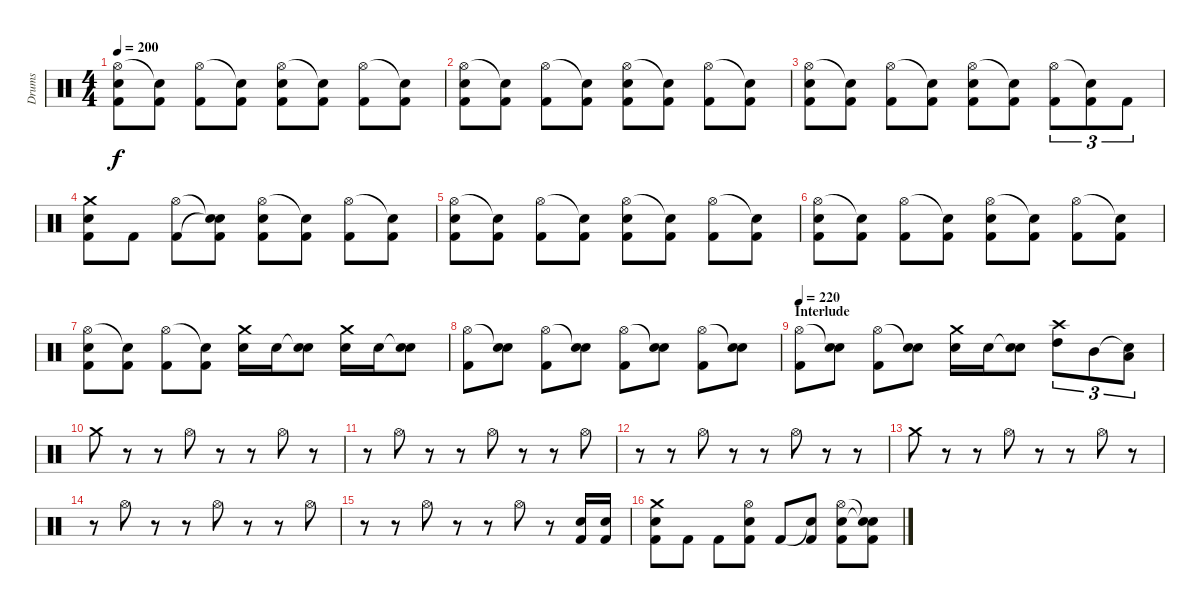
\track ("Drums" "Drums") {instrument percussion}
\staff {score}
\articulation defaults
\ts (4 4)
\tempo 200
\clef neutral
\ks c
("Hi-Hat (open)" "Electric Snare (hit)" "Kick (hit) 2").8{dy f} ("Snare (hit)"{t} "Kick (hit) 2").8 ("Hi-Hat (open)" "Kick (hit) 2").8 ("Snare (hit)"{t} "Kick (hit) 2").8 ("Hi-Hat (open)" "Electric Snare (hit)" "Kick (hit) 2").8 ("Snare (hit)"{t} "Kick (hit) 2").8 ("Hi-Hat (open)" "Kick (hit) 2").8 ("Snare (hit)"{t} "Kick (hit) 2").8 |
("Hi-Hat (open)" "Electric Snare (hit)" "Kick (hit) 2").8 ("Snare (hit)"{t} "Kick (hit) 2").8 ("Hi-Hat (open)" "Kick (hit) 2").8 ("Snare (hit)"{t} "Kick (hit) 2").8 ("Hi-Hat (open)" "Electric Snare (hit)" "Kick (hit) 2").8 ("Snare (hit)"{t} "Kick (hit) 2").8 ("Hi-Hat (open)" "Kick (hit) 2").8 ("Snare (hit)"{t} "Kick (hit) 2").8 |
("Hi-Hat (open)" "Electric Snare (hit)" "Kick (hit) 2").8 ("Snare (hit)"{t} "Kick (hit) 2").8 ("Hi-Hat (open)" "Kick (hit) 2").8 ("Snare (hit)"{t} "Kick (hit) 2").8 ("Hi-Hat (open)" "Electric Snare (hit)" "Kick (hit) 2").8 ("Snare (hit)"{t} "Kick (hit) 2").8 ("Hi-Hat (open)" "Kick (hit) 2").8{tu (3 2)} ("Snare (hit)"{t} "Kick (hit) 2").8{tu (3 2)} "Kick (hit) 2".8{tu (3 2)} |
("Crash medium (hit)" "Electric Snare (hit)" "Kick (hit) 2").8 "Kick (hit) 2".8 ("Hi-Hat (open)" "Kick (hit) 2").8 ("Snare (hit)"{t} "Snare (hit)"{t} "Kick (hit) 2").8 ("Hi-Hat (open)" "Electric Snare (hit)" "Kick (hit) 2").8 ("Snare (hit)"{t} "Kick (hit) 2").8 ("Hi-Hat (open)" "Kick (hit) 2").8 ("Snare (hit)"{t} "Kick (hit) 2").8 |
("Hi-Hat (open)" "Electric Snare (hit)" "Kick (hit) 2").8 ("Snare (hit)"{t} "Kick (hit) 2").8 ("Hi-Hat (open)" "Kick (hit) 2").8 ("Snare (hit)"{t} "Kick (hit) 2").8 ("Hi-Hat (open)" "Electric Snare (hit)" "Kick (hit) 2").8 ("Snare (hit)"{t} "Kick (hit) 2").8 ("Hi-Hat (open)" "Kick (hit) 2").8 ("Snare (hit)"{t} "Kick (hit) 2").8 |
("Hi-Hat (open)" "Electric Snare (hit)" "Kick (hit) 2").8 ("Snare (hit)"{t} "Kick (hit) 2").8 ("Hi-Hat (open)" "Kick (hit) 2").8 ("Snare (hit)"{t} "Kick (hit) 2").8 ("Hi-Hat (open)" "Electric Snare (hit)" "Kick (hit) 2").8 ("Snare (hit)"{t} "Kick (hit) 2").8 ("Hi-Hat (open)" "Kick (hit) 2").8 ("Snare (hit)"{t} "Kick (hit) 2").8 |
("Hi-Hat (open)" "Electric Snare (hit)" "Kick (hit) 2").8 ("Snare (hit)"{t} "Kick (hit) 2").8 ("Hi-Hat (open)" "Kick (hit) 2").8 ("Snare (hit)"{t} "Kick (hit) 2").8 ("Crash medium (hit)" "Electric Snare (hit)").16 "Electric Snare (hit)".16 ("Snare (hit)"{t} "Electric Snare (hit)").8 ("Crash medium (hit)" "Electric Snare (hit)").16 "Electric Snare (hit)".16 ("Snare (hit)"{t} "Electric Snare (hit)").8 |
("Hi-Hat (open)" "Kick (hit) 2").8 ("Snare (hit)"{t} "Electric Snare (hit)").8 ("Hi-Hat (open)" "Kick (hit) 2").8 ("Snare (hit)"{t} "Electric Snare (hit)").8 ("Hi-Hat (open)" "Kick (hit) 2").8 ("Snare (hit)"{t} "Electric Snare (hit)").8 ("Hi-Hat (open)" "Kick (hit) 2").8 ("Snare (hit)"{t} "Electric Snare (hit)").8 |
\section ("" "Interlude")
\tempo 220
("Hi-Hat (open)" "Kick (hit) 2").8 ("Snare (hit)"{t} "Electric Snare (hit)").8 ("Hi-Hat (open)" "Kick (hit) 2").8 ("Snare (hit)"{t} "Electric Snare (hit)").8 ("Crash medium (hit)" "Electric Snare (hit)").16 "Electric Snare (hit)".16 ("Snare (hit)"{t} "Electric Snare (hit)").8 ("Crash high (hit)" "High Tom (hit)").8{tu (3 2)} "Mid Tom (hit)".8{tu (3 2)} ("Snare (hit)"{t} "Low Tom (hit)").8{tu (3 2)} |
"Crash medium (hit)".8 r.8 r.8 "Hi-Hat (open)".8 r.8 r.8 "Hi-Hat (open)".8 r.8 |
r.8 "Hi-Hat (open)".8 r.8 r.8 "Hi-Hat (open)".8 r.8 r.8 "Hi-Hat (open)".8 |
r.8 r.8 "Hi-Hat (open)".8 r.8 r.8 "Hi-Hat (open)".8 r.8 r.8 |
"Crash medium (hit)".8 r.8 r.8 "Hi-Hat (open)".8 r.8 r.8 "Hi-Hat (open)".8 r.8 |
r.8 "Hi-Hat (open)".8 r.8 r.8 "Hi-Hat (open)".8 r.8 r.8 "Hi-Hat (open)".8 |
r.8 r.8 "Hi-Hat (open)".8 r.8 r.8 "Hi-Hat (open)".8 r.8 ("Electric Snare (hit)" "Kick (hit) 2").16 ("Electric Snare (hit)" "Kick (hit) 2").16 |
("Crash medium (hit)" "Electric Snare (hit)" "Kick (hit) 2").8 "Kick (hit) 2".8 "Kick (hit) 2".8 ("Hi-Hat (open)" "Electric Snare (hit)" "Kick (hit) 2").8 "Kick (hit) 2".8 ("Snare (hit)"{t} "Kick (hit) 2").8 ("Hi-Hat (open)" "Electric Snare (hit)" "Kick (hit) 2").8 ("Snare (hit)"{t} "Snare (hit)"{t} "Kick (hit) 2").8
